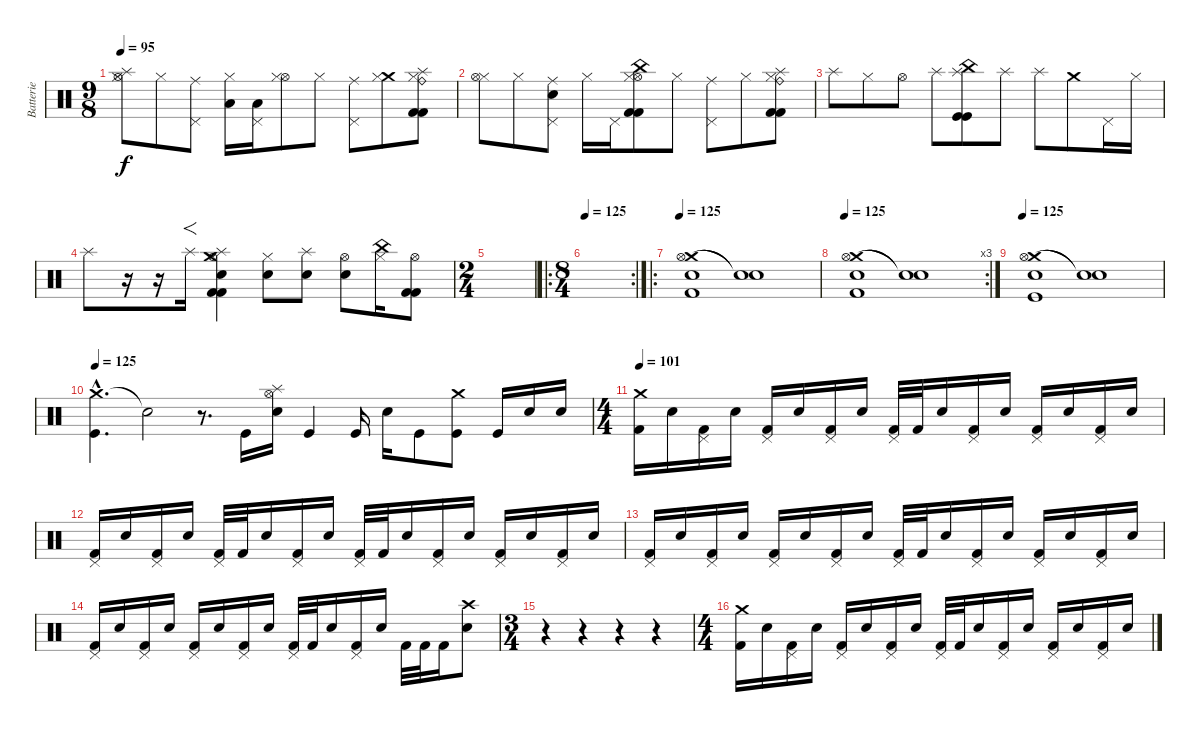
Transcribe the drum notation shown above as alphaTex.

\track ("Batterie" "Batterie") {instrument percussion}
\staff {score}
\articulation defaults
\ts (9 8)
\tempo 95
\clef neutral
\ks c
("Splash (hit)" "Hi-Hat (closed)" "Hi-Hat (open)").8{dy f} "Hi-Hat (closed)".8 ("Ride (middle)" "Pedal Hi-Hat (hit)").8 ("Low Tom (hit)" "Hi-Hat (closed)").16 ("Low Tom (hit)" "Pedal Hi-Hat (hit)").16 ("Hi-Hat (open)" "Hi-Hat (closed)").8 "Hi-Hat (closed)".8 ("Ride (middle)" "Pedal Hi-Hat (hit)").8 ("Crash medium (hit)" "Hi-Hat (closed)").8 ("Kick (hit) 2" "Splash (hit)" "Ride (bell)" "Kick (hit) 2" "Hi-Hat (closed)").8 |
("Hi-Hat (closed)" "Hi-Hat (open)").8 "Hi-Hat (closed)".8 ("Electric Snare (hit)" "Ride (middle)" "Pedal Hi-Hat (hit)").8 "Hi-Hat (closed)".16 "Pedal Hi-Hat (hit)".16 ("Kick (hit) 2" "Kick (hit) 2" "China (hit)" "Hi-Hat (open)" "Hi-Hat (closed)").8 "Hi-Hat (closed)".8 ("Ride (middle)" "Pedal Hi-Hat (hit)").8 "Hi-Hat (closed)".8 ("Kick (hit) 2" "Kick (hit) 2" "Ride (bell)" "Splash (hit)" "Hi-Hat (closed)").8 |
"Splash (hit)".8 "Hi-Hat (closed)".8 "Hi-Hat (open)".8 "Splash (hit)".8 ("China (hit)" "Kick (hit)" "Kick (hit)" "Splash (hit)").8 "Splash (hit)".8 "Splash (hit)".8 "Crash medium (hit)".8 "Pedal Hi-Hat (hit)".16 "Hi-Hat (closed)".16 |
"Splash (hit)".8 r.16 r.16 "Splash (hit)".16{f} ("Kick (hit) 2" "Electric Snare (hit)" "Crash medium (hit)" "Hi-Hat (open)" "Splash (hit)" "Kick (hit) 2").4 ("Hi-Hat (closed)" "Electric Snare (hit)").8 ("Splash (hit)" "Electric Snare (hit)").8 ("Hi-Hat (open)" "Electric Snare (hit)").8 ("Hi-Hat (closed)" "China (hit)").16 ("Kick (hit) 2" "Kick (hit) 2" "Hi-Hat (open)").8 |
\ts (2 4)
|
\ro
\rc 2
\ts (8 4)
\tempo 125
|
\ro
\tempo 125
("Crash medium (hit)" "Hi-Hat (open)" "Electric Snare (hit)" "Kick (hit) 2").1{volume 16 balance 8} ("Snare (hit)"{t} "Snare (hit)"{t}).1 |
\rc 3
\tempo 125
("Crash medium (hit)" "Hi-Hat (open)" "Electric Snare (hit)" "Kick (hit) 2").1 ("Snare (hit)"{t} "Snare (hit)"{t}).1 |
\tempo 125
("Crash medium (hit)" "Hi-Hat (open)" "Electric Snare (hit)" "Kick (hit)").1 ("Snare (hit)"{t} "Snare (hit)"{t}).1 |
\tempo 125
("Crash medium (hit)"{hac} "Kick (hit)"{hac}).4{d} "Snare (hit)"{t}.2 r.8{d} "Kick (hit)".16 ("Splash (hit)" "Hi-Hat (open)" "Electric Snare (hit)").16 "Kick (hit)".4 "Kick (hit)".16 "Electric Snare (hit)".16 "Kick (hit)".8 ("Crash medium (hit)" "Kick (hit)").8 "Kick (hit)".16 "Electric Snare (hit)".16 "Electric Snare (hit)".16 |
\ts (4 4)
\tempo 101
("Crash medium (hit)" "Kick (hit) 2").16 "Electric Snare (hit)".16 ("Pedal Hi-Hat (hit)" "Kick (hit) 2").16 "Electric Snare (hit)".16 ("Pedal Hi-Hat (hit)" "Kick (hit) 2").16 "Electric Snare (hit)".16 ("Pedal Hi-Hat (hit)" "Kick (hit) 2").16 "Electric Snare (hit)".16 ("Pedal Hi-Hat (hit)" "Kick (hit) 2").32 "Kick (hit) 2".32 "Electric Snare (hit)".16 ("Pedal Hi-Hat (hit)" "Kick (hit) 2").16 "Electric Snare (hit)".16 ("Pedal Hi-Hat (hit)" "Kick (hit) 2").16 "Electric Snare (hit)".16 ("Pedal Hi-Hat (hit)" "Kick (hit) 2").16 "Electric Snare (hit)".16 |
("Pedal Hi-Hat (hit)" "Kick (hit) 2").16 "Electric Snare (hit)".16 ("Pedal Hi-Hat (hit)" "Kick (hit) 2").16 "Electric Snare (hit)".16 ("Pedal Hi-Hat (hit)" "Kick (hit) 2").32 "Kick (hit) 2".32 "Electric Snare (hit)".16 ("Pedal Hi-Hat (hit)" "Kick (hit) 2").16 "Electric Snare (hit)".16 ("Pedal Hi-Hat (hit)" "Kick (hit) 2").32 "Kick (hit) 2".32 "Electric Snare (hit)".16 ("Pedal Hi-Hat (hit)" "Kick (hit) 2").16 "Electric Snare (hit)".16 ("Pedal Hi-Hat (hit)" "Kick (hit) 2").16 "Electric Snare (hit)".16 ("Pedal Hi-Hat (hit)" "Kick (hit) 2").16 "Electric Snare (hit)".16 |
("Pedal Hi-Hat (hit)" "Kick (hit) 2").16 "Electric Snare (hit)".16 ("Pedal Hi-Hat (hit)" "Kick (hit) 2").16 "Electric Snare (hit)".16 ("Pedal Hi-Hat (hit)" "Kick (hit) 2").16 "Electric Snare (hit)".16 ("Pedal Hi-Hat (hit)" "Kick (hit) 2").16 "Electric Snare (hit)".16 ("Pedal Hi-Hat (hit)" "Kick (hit) 2").32 "Kick (hit) 2".32 "Electric Snare (hit)".16 ("Pedal Hi-Hat (hit)" "Kick (hit) 2").16 "Electric Snare (hit)".16 ("Pedal Hi-Hat (hit)" "Kick (hit) 2").16 "Electric Snare (hit)".16 ("Pedal Hi-Hat (hit)" "Kick (hit) 2").16 "Electric Snare (hit)".16 |
("Pedal Hi-Hat (hit)" "Kick (hit) 2").16 "Electric Snare (hit)".16 ("Pedal Hi-Hat (hit)" "Kick (hit) 2").16 "Electric Snare (hit)".16 ("Pedal Hi-Hat (hit)" "Kick (hit) 2").16 "Electric Snare (hit)".16 ("Pedal Hi-Hat (hit)" "Kick (hit) 2").16 "Electric Snare (hit)".16 ("Pedal Hi-Hat (hit)" "Kick (hit) 2").32 "Kick (hit) 2".32 "Electric Snare (hit)".16 ("Pedal Hi-Hat (hit)" "Kick (hit) 2").16 "Electric Snare (hit)".16 "Kick (hit) 2".32 "Kick (hit) 2".32 "Kick (hit) 2".16 ("Crash high (hit)" "Electric Snare (hit)").8 |
\ts (3 4)
r.4 r.4 r.4 r.4 |
\ts (4 4)
("Crash medium (hit)" "Kick (hit) 2").16 "Electric Snare (hit)".16 ("Pedal Hi-Hat (hit)" "Kick (hit) 2").16 "Electric Snare (hit)".16 ("Pedal Hi-Hat (hit)" "Kick (hit) 2").16 "Electric Snare (hit)".16 ("Pedal Hi-Hat (hit)" "Kick (hit) 2").16 "Electric Snare (hit)".16 ("Pedal Hi-Hat (hit)" "Kick (hit) 2").32 "Kick (hit) 2".32 "Electric Snare (hit)".16 ("Pedal Hi-Hat (hit)" "Kick (hit) 2").16 "Electric Snare (hit)".16 ("Pedal Hi-Hat (hit)" "Kick (hit) 2").16 "Electric Snare (hit)".16 ("Pedal Hi-Hat (hit)" "Kick (hit) 2").16 "Electric Snare (hit)".16
